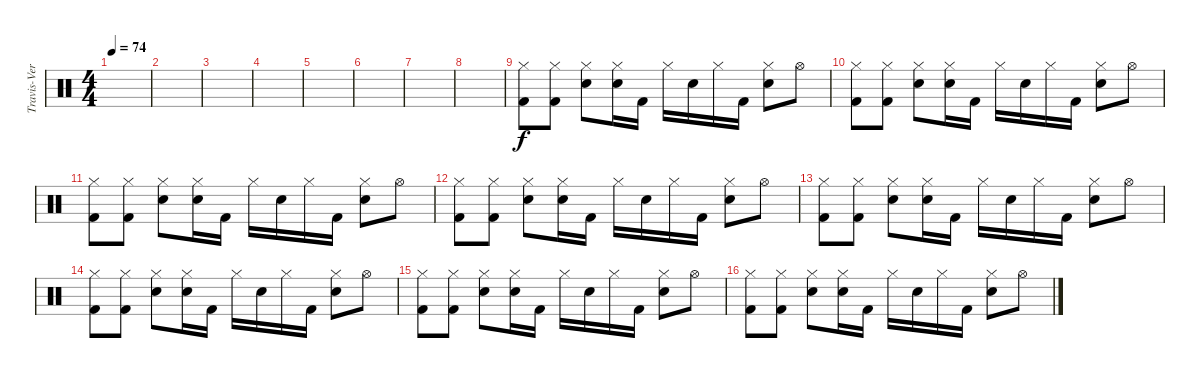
\track ("Travis-Verse" "Travis-Ver") {instrument percussion}
\staff {score}
\articulation defaults
\ts (4 4)
\tempo 74
\clef neutral
\ks c
|
|
|
|
|
|
|
|
("Hi-Hat (closed)" "Kick (hit) 2").8{volume 8} ("Hi-Hat (closed)" "Kick (hit) 2").8 ("Hi-Hat (closed)" "Electric Snare (hit)").8 ("Hi-Hat (closed)" "Electric Snare (hit)").16 "Kick (hit) 2".16 "Hi-Hat (closed)".16 "Electric Snare (hit)".16 "Hi-Hat (closed)".16 "Kick (hit) 2".16 ("Hi-Hat (closed)" "Electric Snare (hit)").8 "Hi-Hat (open)".8 |
("Hi-Hat (closed)" "Kick (hit) 2").8 ("Hi-Hat (closed)" "Kick (hit) 2").8 ("Hi-Hat (closed)" "Electric Snare (hit)").8 ("Hi-Hat (closed)" "Electric Snare (hit)").16 "Kick (hit) 2".16 "Hi-Hat (closed)".16 "Electric Snare (hit)".16 "Hi-Hat (closed)".16 "Kick (hit) 2".16 ("Hi-Hat (closed)" "Electric Snare (hit)").8 "Hi-Hat (open)".8 |
("Hi-Hat (closed)" "Kick (hit) 2").8 ("Hi-Hat (closed)" "Kick (hit) 2").8 ("Hi-Hat (closed)" "Electric Snare (hit)").8 ("Hi-Hat (closed)" "Electric Snare (hit)").16 "Kick (hit) 2".16 "Hi-Hat (closed)".16 "Electric Snare (hit)".16 "Hi-Hat (closed)".16 "Kick (hit) 2".16 ("Hi-Hat (closed)" "Electric Snare (hit)").8 "Hi-Hat (open)".8 |
("Hi-Hat (closed)" "Kick (hit) 2").8 ("Hi-Hat (closed)" "Kick (hit) 2").8 ("Hi-Hat (closed)" "Electric Snare (hit)").8 ("Hi-Hat (closed)" "Electric Snare (hit)").16 "Kick (hit) 2".16 "Hi-Hat (closed)".16 "Electric Snare (hit)".16 "Hi-Hat (closed)".16 "Kick (hit) 2".16 ("Hi-Hat (closed)" "Electric Snare (hit)").8 "Hi-Hat (open)".8 |
("Hi-Hat (closed)" "Kick (hit) 2").8 ("Hi-Hat (closed)" "Kick (hit) 2").8 ("Hi-Hat (closed)" "Electric Snare (hit)").8 ("Hi-Hat (closed)" "Electric Snare (hit)").16 "Kick (hit) 2".16 "Hi-Hat (closed)".16 "Electric Snare (hit)".16 "Hi-Hat (closed)".16 "Kick (hit) 2".16 ("Hi-Hat (closed)" "Electric Snare (hit)").8 "Hi-Hat (open)".8 |
("Hi-Hat (closed)" "Kick (hit) 2").8 ("Hi-Hat (closed)" "Kick (hit) 2").8 ("Hi-Hat (closed)" "Electric Snare (hit)").8 ("Hi-Hat (closed)" "Electric Snare (hit)").16 "Kick (hit) 2".16 "Hi-Hat (closed)".16 "Electric Snare (hit)".16 "Hi-Hat (closed)".16 "Kick (hit) 2".16 ("Hi-Hat (closed)" "Electric Snare (hit)").8 "Hi-Hat (open)".8 |
("Hi-Hat (closed)" "Kick (hit) 2").8 ("Hi-Hat (closed)" "Kick (hit) 2").8 ("Hi-Hat (closed)" "Electric Snare (hit)").8 ("Hi-Hat (closed)" "Electric Snare (hit)").16 "Kick (hit) 2".16 "Hi-Hat (closed)".16 "Electric Snare (hit)".16 "Hi-Hat (closed)".16 "Kick (hit) 2".16 ("Hi-Hat (closed)" "Electric Snare (hit)").8 "Hi-Hat (open)".8 |
("Hi-Hat (closed)" "Kick (hit) 2").8 ("Hi-Hat (closed)" "Kick (hit) 2").8 ("Hi-Hat (closed)" "Electric Snare (hit)").8 ("Hi-Hat (closed)" "Electric Snare (hit)").16 "Kick (hit) 2".16 "Hi-Hat (closed)".16 "Electric Snare (hit)".16 "Hi-Hat (closed)".16 "Kick (hit) 2".16 ("Hi-Hat (closed)" "Electric Snare (hit)").8 "Hi-Hat (open)".8
